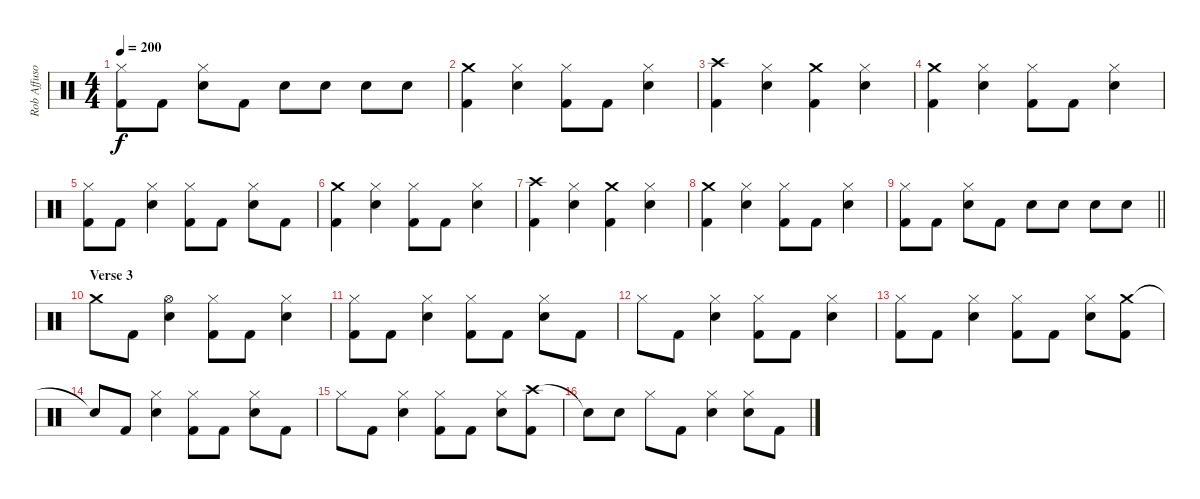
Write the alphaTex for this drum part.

\track ("Rob Affuso - Drums" "Rob Affuso") {instrument percussion}
\staff {score}
\articulation defaults
\ts (4 4)
\tempo 200
\clef neutral
\ks c
("Hi-Hat (closed)" "Kick (hit) 2").8{dy f} "Kick (hit) 2".8 ("Hi-Hat (closed)" "Snare (hit) 2").8 "Kick (hit) 2".8 "Snare (hit) 2".8 "Snare (hit) 2".8 "Snare (hit) 2".8 "Snare (hit) 2".8 |
("Crash medium (hit)" "Kick (hit) 2").4 ("Hi-Hat (closed)" "Snare (hit) 2").4 ("Hi-Hat (closed)" "Kick (hit) 2").8 "Kick (hit) 2".8 ("Hi-Hat (closed)" "Snare (hit) 2").4 |
("Crash high (hit)" "Kick (hit) 2").4 ("Hi-Hat (closed)" "Snare (hit) 2").4 ("Crash medium (hit)" "Kick (hit) 2").4 ("Hi-Hat (closed)" "Snare (hit) 2").4 |
("Crash medium (hit)" "Kick (hit) 2").4 ("Hi-Hat (closed)" "Snare (hit) 2").4 ("Hi-Hat (closed)" "Kick (hit) 2").8 "Kick (hit) 2".8 ("Hi-Hat (closed)" "Snare (hit) 2").4 |
("Hi-Hat (closed)" "Kick (hit) 2").8 "Kick (hit) 2".8 ("Hi-Hat (closed)" "Snare (hit) 2").4 ("Hi-Hat (closed)" "Kick (hit) 2").8 "Kick (hit) 2".8 ("Hi-Hat (closed)" "Snare (hit) 2").8 "Kick (hit) 2".8 |
("Crash medium (hit)" "Kick (hit) 2").4 ("Hi-Hat (closed)" "Snare (hit) 2").4 ("Hi-Hat (closed)" "Kick (hit) 2").8 "Kick (hit) 2".8 ("Hi-Hat (closed)" "Snare (hit) 2").4 |
("Crash high (hit)" "Kick (hit) 2").4 ("Hi-Hat (closed)" "Snare (hit) 2").4 ("Crash medium (hit)" "Kick (hit) 2").4 ("Hi-Hat (closed)" "Snare (hit) 2").4 |
("Crash medium (hit)" "Kick (hit) 2").4 ("Hi-Hat (closed)" "Snare (hit) 2").4 ("Hi-Hat (closed)" "Kick (hit) 2").8 "Kick (hit) 2".8 ("Hi-Hat (closed)" "Snare (hit) 2").4 |
\barLineRight lightlight
("Hi-Hat (closed)" "Kick (hit) 2").8 "Kick (hit) 2".8 ("Hi-Hat (closed)" "Snare (hit) 2").8 "Kick (hit) 2".8 "Snare (hit) 2".8 "Snare (hit) 2".8 "Snare (hit) 2".8 "Snare (hit) 2".8 |
\section ("" "Verse 3")
"Crash medium (hit)".8 "Kick (hit) 2".8 ("Hi-Hat (open)" "Snare (hit) 2").4 ("Hi-Hat (closed)" "Kick (hit) 2").8 "Kick (hit) 2".8 ("Hi-Hat (closed)" "Snare (hit) 2").4 |
("Hi-Hat (closed)" "Kick (hit) 2").8 "Kick (hit) 2".8 ("Hi-Hat (closed)" "Snare (hit) 2").4 ("Hi-Hat (closed)" "Kick (hit) 2").8 "Kick (hit) 2".8 ("Hi-Hat (closed)" "Snare (hit) 2").8 "Kick (hit) 2".8 |
"Hi-Hat (closed)".8 "Kick (hit) 2".8 ("Hi-Hat (closed)" "Snare (hit) 2").4 ("Hi-Hat (closed)" "Kick (hit) 2").8 "Kick (hit) 2".8 ("Hi-Hat (closed)" "Snare (hit) 2").4 |
("Hi-Hat (closed)" "Kick (hit) 2").8 "Kick (hit) 2".8 ("Hi-Hat (closed)" "Snare (hit) 2").4 ("Hi-Hat (closed)" "Kick (hit) 2").8 "Kick (hit) 2".8 ("Hi-Hat (closed)" "Snare (hit) 2").8 ("Crash medium (hit)" "Kick (hit) 2").8 |
"Snare (hit)"{t}.8 "Kick (hit) 2".8 ("Hi-Hat (closed)" "Snare (hit) 2").4 ("Hi-Hat (closed)" "Kick (hit) 2").8 "Kick (hit) 2".8 ("Hi-Hat (closed)" "Snare (hit) 2").8 "Kick (hit) 2".8 |
"Hi-Hat (closed)".8 "Kick (hit) 2".8 ("Hi-Hat (closed)" "Snare (hit) 2").4 ("Hi-Hat (closed)" "Kick (hit) 2").8 "Kick (hit) 2".8 ("Hi-Hat (closed)" "Snare (hit) 2").8 ("Crash high (hit)" "Kick (hit) 2").8 |
"Snare (hit)"{t}.8 "Snare (hit) 2".8 "Hi-Hat (closed)".8 "Kick (hit) 2".8 ("Hi-Hat (closed)" "Snare (hit) 2").4 ("Hi-Hat (closed)" "Snare (hit) 2").8 "Kick (hit) 2".8
